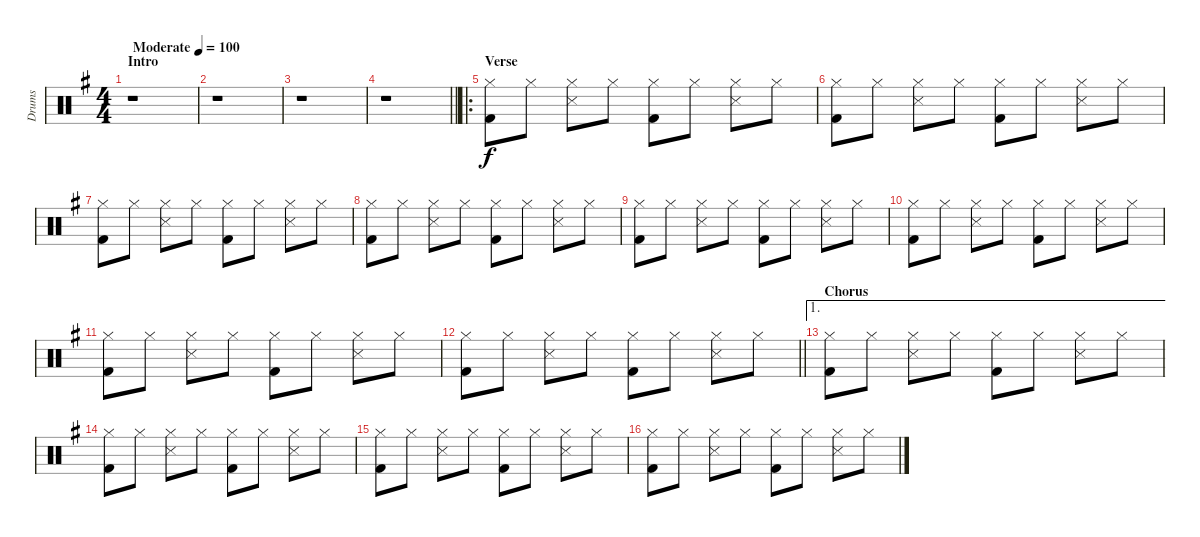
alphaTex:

\track ("Drums" "Drums") {instrument percussion}
\staff {score}
\articulation defaults
\ts (4 4)
\section ("" "Intro")
\tempo (100 "Moderate")
\clef neutral
\ks g
r.1{dy f} |
r.1 |
r.1 |
\barLineRight lightlight
r.1 |
\ro
\section ("" "Verse")
("Hi-Hat (closed)" "Kick (hit) 2").8 "Hi-Hat (closed)".8 ("Hi-Hat (closed)" "Snare (side stick) 3").8 "Hi-Hat (closed)".8 ("Hi-Hat (closed)" "Kick (hit) 2").8 "Hi-Hat (closed)".8 ("Hi-Hat (closed)" "Snare (side stick) 3").8 "Hi-Hat (closed)".8 |
("Hi-Hat (closed)" "Kick (hit) 2").8 "Hi-Hat (closed)".8 ("Hi-Hat (closed)" "Snare (side stick) 3").8 "Hi-Hat (closed)".8 ("Hi-Hat (closed)" "Kick (hit) 2").8 "Hi-Hat (closed)".8 ("Hi-Hat (closed)" "Snare (side stick) 3").8 "Hi-Hat (closed)".8 |
("Hi-Hat (closed)" "Kick (hit) 2").8 "Hi-Hat (closed)".8 ("Hi-Hat (closed)" "Snare (side stick) 3").8 "Hi-Hat (closed)".8 ("Hi-Hat (closed)" "Kick (hit) 2").8 "Hi-Hat (closed)".8 ("Hi-Hat (closed)" "Snare (side stick) 3").8 "Hi-Hat (closed)".8 |
("Hi-Hat (closed)" "Kick (hit) 2").8 "Hi-Hat (closed)".8 ("Hi-Hat (closed)" "Snare (side stick) 3").8 "Hi-Hat (closed)".8 ("Hi-Hat (closed)" "Kick (hit) 2").8 "Hi-Hat (closed)".8 ("Hi-Hat (closed)" "Snare (side stick) 3").8 "Hi-Hat (closed)".8 |
("Hi-Hat (closed)" "Kick (hit) 2").8 "Hi-Hat (closed)".8 ("Hi-Hat (closed)" "Snare (side stick) 3").8 "Hi-Hat (closed)".8 ("Hi-Hat (closed)" "Kick (hit) 2").8 "Hi-Hat (closed)".8 ("Hi-Hat (closed)" "Snare (side stick) 3").8 "Hi-Hat (closed)".8 |
("Hi-Hat (closed)" "Kick (hit) 2").8 "Hi-Hat (closed)".8 ("Hi-Hat (closed)" "Snare (side stick) 3").8 "Hi-Hat (closed)".8 ("Hi-Hat (closed)" "Kick (hit) 2").8 "Hi-Hat (closed)".8 ("Hi-Hat (closed)" "Snare (side stick) 3").8 "Hi-Hat (closed)".8 |
("Hi-Hat (closed)" "Kick (hit) 2").8 "Hi-Hat (closed)".8 ("Hi-Hat (closed)" "Snare (side stick) 3").8 "Hi-Hat (closed)".8 ("Hi-Hat (closed)" "Kick (hit) 2").8 "Hi-Hat (closed)".8 ("Hi-Hat (closed)" "Snare (side stick) 3").8 "Hi-Hat (closed)".8 |
\barLineRight lightlight
("Hi-Hat (closed)" "Kick (hit) 2").8 "Hi-Hat (closed)".8 ("Hi-Hat (closed)" "Snare (side stick) 3").8 "Hi-Hat (closed)".8 ("Hi-Hat (closed)" "Kick (hit) 2").8 "Hi-Hat (closed)".8 ("Hi-Hat (closed)" "Snare (side stick) 3").8 "Hi-Hat (closed)".8 |
\ae 1
\section ("" "Chorus")
("Hi-Hat (closed)" "Kick (hit) 2").8 "Hi-Hat (closed)".8 ("Hi-Hat (closed)" "Snare (side stick) 3").8 "Hi-Hat (closed)".8 ("Hi-Hat (closed)" "Kick (hit) 2").8 "Hi-Hat (closed)".8 ("Hi-Hat (closed)" "Snare (side stick) 3").8 "Hi-Hat (closed)".8 |
("Hi-Hat (closed)" "Kick (hit) 2").8 "Hi-Hat (closed)".8 ("Hi-Hat (closed)" "Snare (side stick) 3").8 "Hi-Hat (closed)".8 ("Hi-Hat (closed)" "Kick (hit) 2").8 "Hi-Hat (closed)".8 ("Hi-Hat (closed)" "Snare (side stick) 3").8 "Hi-Hat (closed)".8 |
("Hi-Hat (closed)" "Kick (hit) 2").8 "Hi-Hat (closed)".8 ("Hi-Hat (closed)" "Snare (side stick) 3").8 "Hi-Hat (closed)".8 ("Hi-Hat (closed)" "Kick (hit) 2").8 "Hi-Hat (closed)".8 ("Hi-Hat (closed)" "Snare (side stick) 3").8 "Hi-Hat (closed)".8 |
("Hi-Hat (closed)" "Kick (hit) 2").8 "Hi-Hat (closed)".8 ("Hi-Hat (closed)" "Snare (side stick) 3").8 "Hi-Hat (closed)".8 ("Hi-Hat (closed)" "Kick (hit) 2").8 "Hi-Hat (closed)".8 ("Hi-Hat (closed)" "Snare (side stick) 3").8 "Hi-Hat (closed)".8
